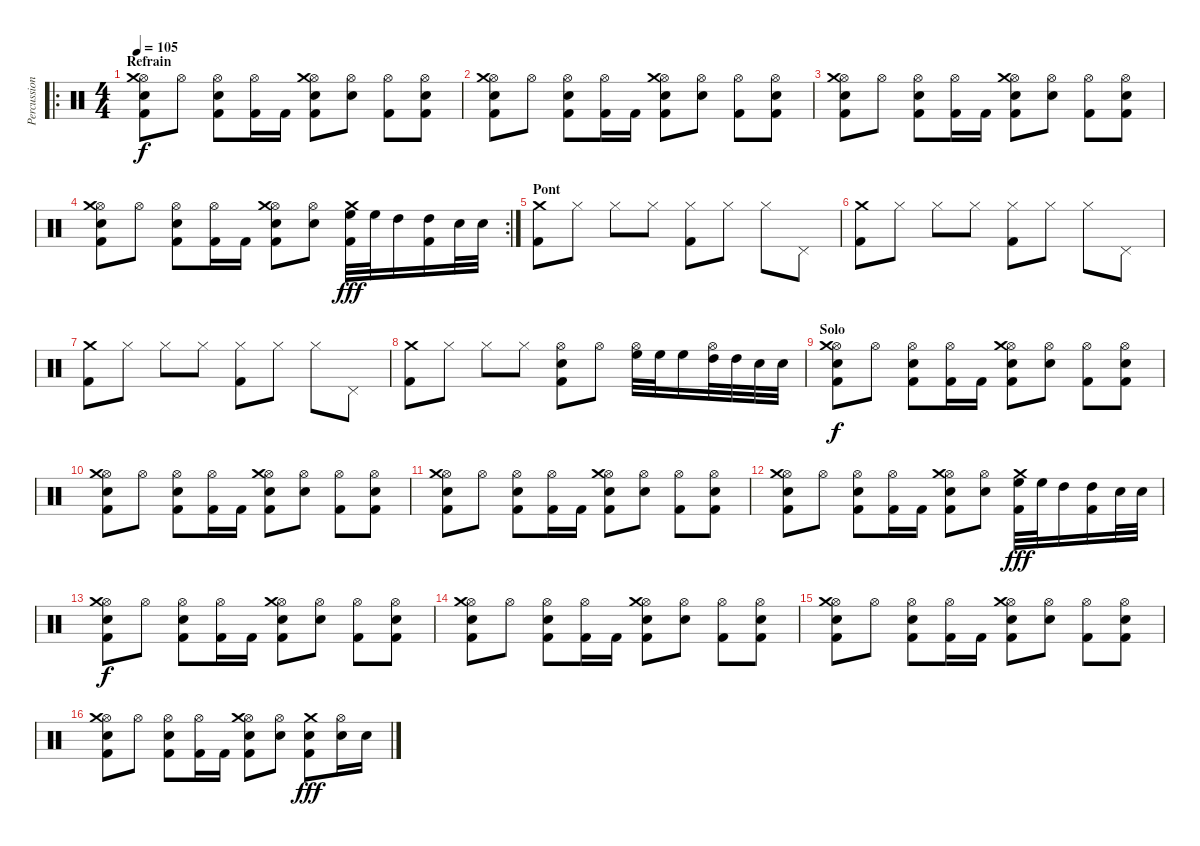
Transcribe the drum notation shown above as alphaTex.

\track ("Percussions" "Percussion") {instrument percussion}
\staff {score}
\articulation defaults
\ro
\ts (4 4)
\section ("" "Refrain")
\tempo 105
\clef neutral
\ks c
("Hi-Hat (open)" "Kick (hit) 2" "Snare (hit) 2" "Crash medium (hit)").8{dy f} "Hi-Hat (open)".8 ("Hi-Hat (open)" "Kick (hit) 2" "Snare (hit) 2").8 ("Hi-Hat (open)" "Kick (hit) 2").16 "Kick (hit) 2".16 ("Hi-Hat (open)" "Kick (hit) 2" "Snare (hit) 2" "Crash medium (hit)").8 ("Hi-Hat (open)" "Snare (hit) 2").8 ("Hi-Hat (open)" "Kick (hit) 2").8 ("Hi-Hat (open)" "Kick (hit) 2" "Snare (hit) 2").8 |
("Hi-Hat (open)" "Kick (hit) 2" "Snare (hit) 2" "Crash medium (hit)").8 "Hi-Hat (open)".8 ("Hi-Hat (open)" "Kick (hit) 2" "Snare (hit) 2").8 ("Hi-Hat (open)" "Kick (hit) 2").16 "Kick (hit) 2".16 ("Hi-Hat (open)" "Kick (hit) 2" "Snare (hit) 2" "Crash medium (hit)").8 ("Hi-Hat (open)" "Snare (hit) 2").8 ("Hi-Hat (open)" "Kick (hit) 2").8 ("Hi-Hat (open)" "Kick (hit) 2" "Snare (hit) 2").8 |
("Hi-Hat (open)" "Kick (hit) 2" "Snare (hit) 2" "Crash medium (hit)").8 "Hi-Hat (open)".8 ("Hi-Hat (open)" "Kick (hit) 2" "Snare (hit) 2").8 ("Hi-Hat (open)" "Kick (hit) 2").16 "Kick (hit) 2".16 ("Hi-Hat (open)" "Kick (hit) 2" "Snare (hit) 2" "Crash medium (hit)").8 ("Hi-Hat (open)" "Snare (hit) 2").8 ("Hi-Hat (open)" "Kick (hit) 2").8 ("Hi-Hat (open)" "Kick (hit) 2" "Snare (hit) 2").8 |
\rc 2
("Hi-Hat (open)" "Kick (hit) 2" "Snare (hit) 2" "Crash medium (hit)").8 "Hi-Hat (open)".8 ("Hi-Hat (open)" "Kick (hit) 2" "Snare (hit) 2").8 ("Hi-Hat (open)" "Kick (hit) 2").16 "Kick (hit) 2".16 ("Hi-Hat (open)" "Kick (hit) 2" "Snare (hit) 2" "Crash medium (hit)").8 ("Hi-Hat (open)" "Snare (hit) 2").8 ("Crash medium (hit)" "Kick (hit) 2" "High Floor Tom (hit)").32{dy fff} "High Floor Tom (hit)".32 "High Tom (hit)".16 ("Kick (hit) 2" "High Tom (hit)").16 "Snare (hit) 2".32 "Snare (hit) 2".32 |
\section ("" "Pont")
("Crash medium (hit)" "Kick (hit) 2").8 "Hi-Hat (closed)".8 "Hi-Hat (closed)".8 "Hi-Hat (closed)".8 ("Kick (hit) 2" "Hi-Hat (closed)").8 "Hi-Hat (closed)".8 "Hi-Hat (closed)".8 "Pedal Hi-Hat (hit)".8 |
("Crash medium (hit)" "Kick (hit) 2").8 "Hi-Hat (closed)".8 "Hi-Hat (closed)".8 "Hi-Hat (closed)".8 ("Kick (hit) 2" "Hi-Hat (closed)").8 "Hi-Hat (closed)".8 "Hi-Hat (closed)".8 "Pedal Hi-Hat (hit)".8 |
("Crash medium (hit)" "Kick (hit) 2").8 "Hi-Hat (closed)".8 "Hi-Hat (closed)".8 "Hi-Hat (closed)".8 ("Kick (hit) 2" "Hi-Hat (closed)").8 "Hi-Hat (closed)".8 "Hi-Hat (closed)".8 "Pedal Hi-Hat (hit)".8 |
("Crash medium (hit)" "Kick (hit) 2").8 "Hi-Hat (closed)".8 "Hi-Hat (closed)".8 "Hi-Hat (closed)".8 ("Kick (hit) 2" "Hi-Hat (open)" "Snare (hit) 2").8 "Hi-Hat (open)".8 ("Hi-Hat (open)" "High Floor Tom (hit)").32 "High Floor Tom (hit)".32 "High Floor Tom (hit)".16 ("Hi-Hat (open)" "High Tom (hit)").32 "High Tom (hit)".32 "Snare (hit) 2".32 "Snare (hit) 2".32 |
\section ("" "Solo")
("Hi-Hat (open)" "Kick (hit) 2" "Snare (hit) 2" "Crash medium (hit)").8{dy f} "Hi-Hat (open)".8 ("Hi-Hat (open)" "Kick (hit) 2" "Snare (hit) 2").8 ("Hi-Hat (open)" "Kick (hit) 2").16 "Kick (hit) 2".16 ("Hi-Hat (open)" "Kick (hit) 2" "Snare (hit) 2" "Crash medium (hit)").8 ("Hi-Hat (open)" "Snare (hit) 2").8 ("Hi-Hat (open)" "Kick (hit) 2").8 ("Hi-Hat (open)" "Kick (hit) 2" "Snare (hit) 2").8 |
("Hi-Hat (open)" "Kick (hit) 2" "Snare (hit) 2" "Crash medium (hit)").8 "Hi-Hat (open)".8 ("Hi-Hat (open)" "Kick (hit) 2" "Snare (hit) 2").8 ("Hi-Hat (open)" "Kick (hit) 2").16 "Kick (hit) 2".16 ("Hi-Hat (open)" "Kick (hit) 2" "Snare (hit) 2" "Crash medium (hit)").8 ("Hi-Hat (open)" "Snare (hit) 2").8 ("Hi-Hat (open)" "Kick (hit) 2").8 ("Hi-Hat (open)" "Kick (hit) 2" "Snare (hit) 2").8 |
("Hi-Hat (open)" "Kick (hit) 2" "Snare (hit) 2" "Crash medium (hit)").8 "Hi-Hat (open)".8 ("Hi-Hat (open)" "Kick (hit) 2" "Snare (hit) 2").8 ("Hi-Hat (open)" "Kick (hit) 2").16 "Kick (hit) 2".16 ("Hi-Hat (open)" "Kick (hit) 2" "Snare (hit) 2" "Crash medium (hit)").8 ("Hi-Hat (open)" "Snare (hit) 2").8 ("Hi-Hat (open)" "Kick (hit) 2").8 ("Hi-Hat (open)" "Kick (hit) 2" "Snare (hit) 2").8 |
("Hi-Hat (open)" "Kick (hit) 2" "Snare (hit) 2" "Crash medium (hit)").8 "Hi-Hat (open)".8 ("Hi-Hat (open)" "Kick (hit) 2" "Snare (hit) 2").8 ("Hi-Hat (open)" "Kick (hit) 2").16 "Kick (hit) 2".16 ("Hi-Hat (open)" "Kick (hit) 2" "Snare (hit) 2" "Crash medium (hit)").8 ("Hi-Hat (open)" "Snare (hit) 2").8 ("Crash medium (hit)" "Kick (hit) 2" "High Floor Tom (hit)").32{dy fff} "High Floor Tom (hit)".32 "High Tom (hit)".16 ("Kick (hit) 2" "High Tom (hit)").16 "Snare (hit) 2".32 "Snare (hit) 2".32 |
("Hi-Hat (open)" "Kick (hit) 2" "Snare (hit) 2" "Crash medium (hit)").8{dy f} "Hi-Hat (open)".8 ("Hi-Hat (open)" "Kick (hit) 2" "Snare (hit) 2").8 ("Hi-Hat (open)" "Kick (hit) 2").16 "Kick (hit) 2".16 ("Hi-Hat (open)" "Kick (hit) 2" "Snare (hit) 2" "Crash medium (hit)").8 ("Hi-Hat (open)" "Snare (hit) 2").8 ("Hi-Hat (open)" "Kick (hit) 2").8 ("Hi-Hat (open)" "Kick (hit) 2" "Snare (hit) 2").8 |
("Hi-Hat (open)" "Kick (hit) 2" "Snare (hit) 2" "Crash medium (hit)").8 "Hi-Hat (open)".8 ("Hi-Hat (open)" "Kick (hit) 2" "Snare (hit) 2").8 ("Hi-Hat (open)" "Kick (hit) 2").16 "Kick (hit) 2".16 ("Hi-Hat (open)" "Kick (hit) 2" "Snare (hit) 2" "Crash medium (hit)").8 ("Hi-Hat (open)" "Snare (hit) 2").8 ("Hi-Hat (open)" "Kick (hit) 2").8 ("Hi-Hat (open)" "Kick (hit) 2" "Snare (hit) 2").8 |
("Hi-Hat (open)" "Kick (hit) 2" "Snare (hit) 2" "Crash medium (hit)").8 "Hi-Hat (open)".8 ("Hi-Hat (open)" "Kick (hit) 2" "Snare (hit) 2").8 ("Hi-Hat (open)" "Kick (hit) 2").16 "Kick (hit) 2".16 ("Hi-Hat (open)" "Kick (hit) 2" "Snare (hit) 2" "Crash medium (hit)").8 ("Hi-Hat (open)" "Snare (hit) 2").8 ("Hi-Hat (open)" "Kick (hit) 2").8 ("Hi-Hat (open)" "Kick (hit) 2" "Snare (hit) 2").8 |
("Hi-Hat (open)" "Kick (hit) 2" "Snare (hit) 2" "Crash medium (hit)").8 "Hi-Hat (open)".8 ("Hi-Hat (open)" "Kick (hit) 2" "Snare (hit) 2").8 ("Hi-Hat (open)" "Kick (hit) 2").16 "Kick (hit) 2".16 ("Hi-Hat (open)" "Kick (hit) 2" "Snare (hit) 2" "Crash medium (hit)").8 ("Hi-Hat (open)" "Snare (hit) 2").8 ("Crash medium (hit)" "Kick (hit) 2" "Snare (hit) 2").8{dy fff} ("Hi-Hat (open)" "Snare (hit) 2").16 "Snare (hit) 2".16
